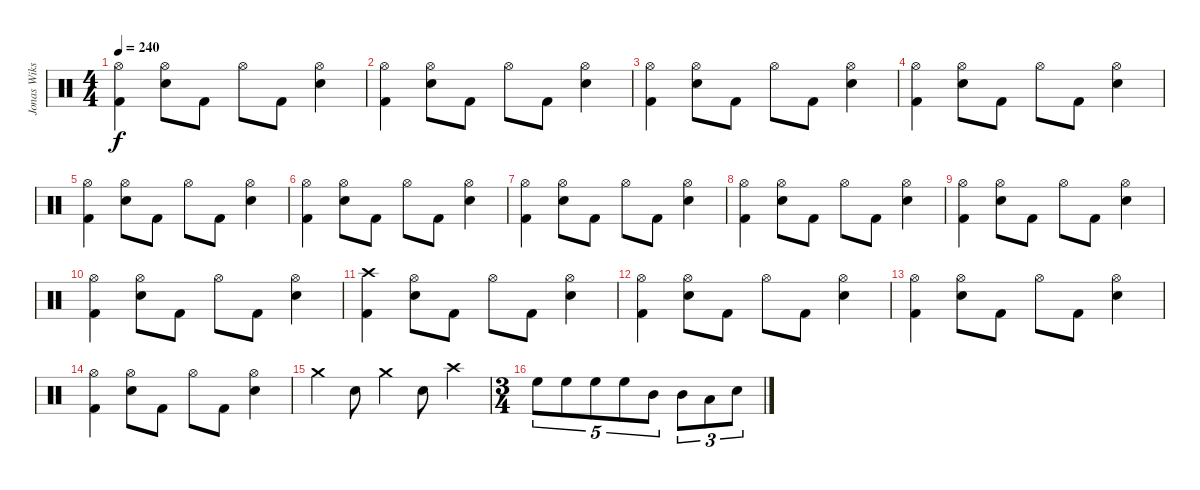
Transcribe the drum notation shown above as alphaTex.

\track ("Jonas Wikstrand" "Jonas Wiks") {instrument percussion}
\staff {score}
\articulation defaults
\ts (4 4)
\tempo 240
\clef neutral
\ks c
("Hi-Hat (open)" "Kick (hit) 2").4{dy f} ("Hi-Hat (open)" "Snare (hit) 2").8 "Kick (hit) 2".8 "Hi-Hat (open)".8 "Kick (hit) 2".8 ("Hi-Hat (open)" "Snare (hit) 2").4 |
("Hi-Hat (open)" "Kick (hit) 2").4 ("Hi-Hat (open)" "Snare (hit) 2").8 "Kick (hit) 2".8 "Hi-Hat (open)".8 "Kick (hit) 2".8 ("Hi-Hat (open)" "Snare (hit) 2").4 |
("Hi-Hat (open)" "Kick (hit) 2").4 ("Hi-Hat (open)" "Snare (hit) 2").8 "Kick (hit) 2".8 "Hi-Hat (open)".8 "Kick (hit) 2".8 ("Hi-Hat (open)" "Snare (hit) 2").4 |
("Hi-Hat (open)" "Kick (hit) 2").4 ("Hi-Hat (open)" "Snare (hit) 2").8 "Kick (hit) 2".8 "Hi-Hat (open)".8 "Kick (hit) 2".8 ("Hi-Hat (open)" "Snare (hit) 2").4 |
("Hi-Hat (open)" "Kick (hit) 2").4 ("Hi-Hat (open)" "Snare (hit) 2").8 "Kick (hit) 2".8 "Hi-Hat (open)".8 "Kick (hit) 2".8 ("Hi-Hat (open)" "Snare (hit) 2").4 |
("Hi-Hat (open)" "Kick (hit) 2").4 ("Hi-Hat (open)" "Snare (hit) 2").8 "Kick (hit) 2".8 "Hi-Hat (open)".8 "Kick (hit) 2".8 ("Hi-Hat (open)" "Snare (hit) 2").4 |
("Hi-Hat (open)" "Kick (hit) 2").4 ("Hi-Hat (open)" "Snare (hit) 2").8 "Kick (hit) 2".8 "Hi-Hat (open)".8 "Kick (hit) 2".8 ("Hi-Hat (open)" "Snare (hit) 2").4 |
("Hi-Hat (open)" "Kick (hit) 2").4 ("Hi-Hat (open)" "Snare (hit) 2").8 "Kick (hit) 2".8 "Hi-Hat (open)".8 "Kick (hit) 2".8 ("Hi-Hat (open)" "Snare (hit) 2").4 |
("Hi-Hat (open)" "Kick (hit) 2").4 ("Hi-Hat (open)" "Snare (hit) 2").8 "Kick (hit) 2".8 "Hi-Hat (open)".8 "Kick (hit) 2".8 ("Hi-Hat (open)" "Snare (hit) 2").4 |
("Hi-Hat (open)" "Kick (hit) 2").4 ("Hi-Hat (open)" "Snare (hit) 2").8 "Kick (hit) 2".8 "Hi-Hat (open)".8 "Kick (hit) 2".8 ("Hi-Hat (open)" "Snare (hit) 2").4 |
("Crash high (hit)" "Kick (hit) 2").4 ("Hi-Hat (open)" "Snare (hit) 2").8 "Kick (hit) 2".8 "Hi-Hat (open)".8 "Kick (hit) 2".8 ("Hi-Hat (open)" "Snare (hit) 2").4 |
("Hi-Hat (open)" "Kick (hit) 2").4 ("Hi-Hat (open)" "Snare (hit) 2").8 "Kick (hit) 2".8 "Hi-Hat (open)".8 "Kick (hit) 2".8 ("Hi-Hat (open)" "Snare (hit) 2").4 |
("Hi-Hat (open)" "Kick (hit) 2").4 ("Hi-Hat (open)" "Snare (hit) 2").8 "Kick (hit) 2".8 "Hi-Hat (open)".8 "Kick (hit) 2".8 ("Hi-Hat (open)" "Snare (hit) 2").4 |
("Hi-Hat (open)" "Kick (hit) 2").4 ("Hi-Hat (open)" "Snare (hit) 2").8 "Kick (hit) 2".8 "Hi-Hat (open)".8 "Kick (hit) 2".8 ("Hi-Hat (open)" "Snare (hit) 2").4 |
"Crash medium (hit)".4 "Snare (hit) 2".8 "Crash medium (hit)".4 "Snare (hit) 2".8 "Crash high (hit)".4 |
\ts (3 4)
"High Floor Tom (hit)".8{tu (5 4)} "High Floor Tom (hit)".8{tu (5 4)} "High Floor Tom (hit)".8{tu (5 4)} "High Floor Tom (hit)".8{tu (5 4)} "Mid Tom (hit)".8{tu (5 4)} "Mid Tom (hit)".8{tu (3 2)} "Low Floor Tom (hit)".8{tu (3 2)} "Snare (hit) 2".8{tu (3 2)}
